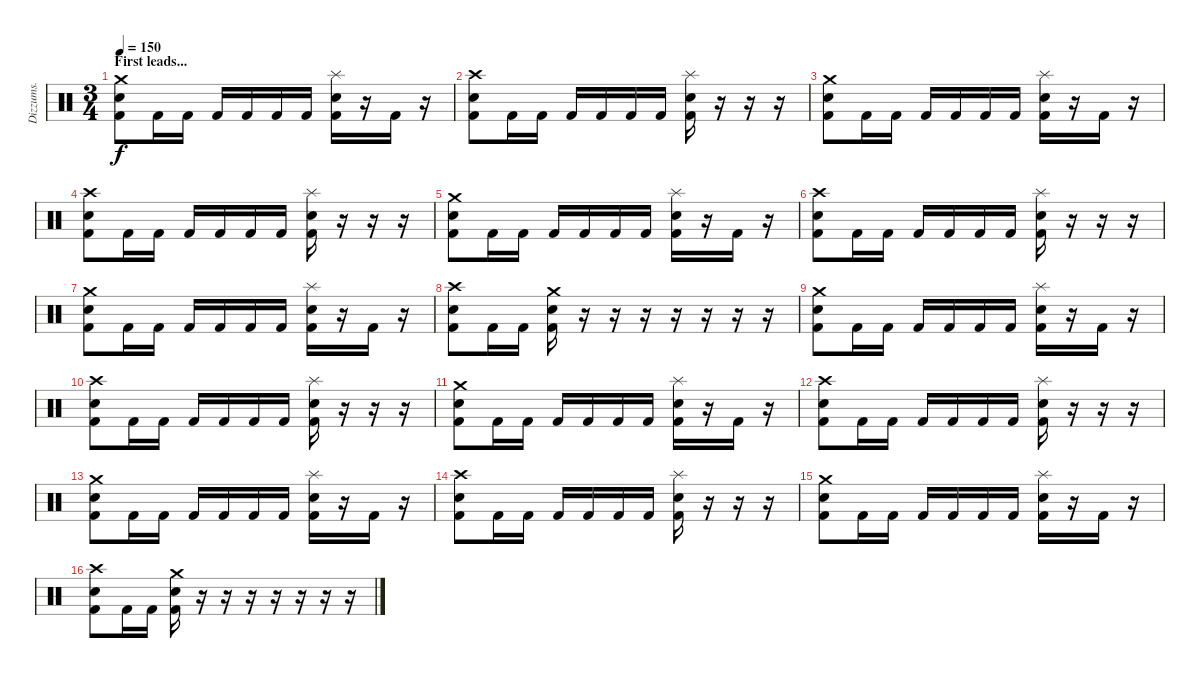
\track ("Dizzums." "Dizzums.") {instrument percussion}
\staff {score}
\articulation defaults
\ts (3 4)
\section ("" "First leads...")
\tempo 150
\clef neutral
\ks c
("Crash medium (hit)" "Electric Snare (hit)" "Kick (hit) 2").8{dy f} "Kick (hit) 2".16 "Kick (hit) 2".16 "Kick (hit) 2".16 "Kick (hit) 2".16 "Kick (hit) 2".16 "Kick (hit) 2".16 ("Splash (hit)" "Electric Snare (hit)" "Kick (hit) 2").16 r.16 "Kick (hit) 2".16 r.16 |
("Crash high (hit)" "Electric Snare (hit)" "Kick (hit) 2").8 "Kick (hit) 2".16 "Kick (hit) 2".16 "Kick (hit) 2".16 "Kick (hit) 2".16 "Kick (hit) 2".16 "Kick (hit) 2".16 ("Splash (hit)" "Electric Snare (hit)" "Kick (hit) 2").16 r.16 r.16 r.16 |
("Crash medium (hit)" "Electric Snare (hit)" "Kick (hit) 2").8 "Kick (hit) 2".16 "Kick (hit) 2".16 "Kick (hit) 2".16 "Kick (hit) 2".16 "Kick (hit) 2".16 "Kick (hit) 2".16 ("Splash (hit)" "Electric Snare (hit)" "Kick (hit) 2").16 r.16 "Kick (hit) 2".16 r.16 |
("Crash high (hit)" "Electric Snare (hit)" "Kick (hit) 2").8 "Kick (hit) 2".16 "Kick (hit) 2".16 "Kick (hit) 2".16 "Kick (hit) 2".16 "Kick (hit) 2".16 "Kick (hit) 2".16 ("Splash (hit)" "Electric Snare (hit)" "Kick (hit) 2").16 r.16 r.16 r.16 |
("Crash medium (hit)" "Electric Snare (hit)" "Kick (hit) 2").8 "Kick (hit) 2".16 "Kick (hit) 2".16 "Kick (hit) 2".16 "Kick (hit) 2".16 "Kick (hit) 2".16 "Kick (hit) 2".16 ("Splash (hit)" "Electric Snare (hit)" "Kick (hit) 2").16 r.16 "Kick (hit) 2".16 r.16 |
("Crash high (hit)" "Electric Snare (hit)" "Kick (hit) 2").8 "Kick (hit) 2".16 "Kick (hit) 2".16 "Kick (hit) 2".16 "Kick (hit) 2".16 "Kick (hit) 2".16 "Kick (hit) 2".16 ("Splash (hit)" "Electric Snare (hit)" "Kick (hit) 2").16 r.16 r.16 r.16 |
("Crash medium (hit)" "Electric Snare (hit)" "Kick (hit) 2").8 "Kick (hit) 2".16 "Kick (hit) 2".16 "Kick (hit) 2".16 "Kick (hit) 2".16 "Kick (hit) 2".16 "Kick (hit) 2".16 ("Splash (hit)" "Electric Snare (hit)" "Kick (hit) 2").16 r.16 "Kick (hit) 2".16 r.16 |
("Crash high (hit)" "Electric Snare (hit)" "Kick (hit) 2").8 "Kick (hit) 2".16 "Kick (hit) 2".16 ("Crash medium (hit)" "Electric Snare (hit)" "Kick (hit) 2").16 r.16 r.16 r.16 r.16 r.16 r.16 r.16 |
("Crash medium (hit)" "Electric Snare (hit)" "Kick (hit) 2").8 "Kick (hit) 2".16 "Kick (hit) 2".16 "Kick (hit) 2".16 "Kick (hit) 2".16 "Kick (hit) 2".16 "Kick (hit) 2".16 ("Splash (hit)" "Electric Snare (hit)" "Kick (hit) 2").16 r.16 "Kick (hit) 2".16 r.16 |
("Crash high (hit)" "Electric Snare (hit)" "Kick (hit) 2").8 "Kick (hit) 2".16 "Kick (hit) 2".16 "Kick (hit) 2".16 "Kick (hit) 2".16 "Kick (hit) 2".16 "Kick (hit) 2".16 ("Splash (hit)" "Electric Snare (hit)" "Kick (hit) 2").16 r.16 r.16 r.16 |
("Crash medium (hit)" "Electric Snare (hit)" "Kick (hit) 2").8 "Kick (hit) 2".16 "Kick (hit) 2".16 "Kick (hit) 2".16 "Kick (hit) 2".16 "Kick (hit) 2".16 "Kick (hit) 2".16 ("Splash (hit)" "Electric Snare (hit)" "Kick (hit) 2").16 r.16 "Kick (hit) 2".16 r.16 |
("Crash high (hit)" "Electric Snare (hit)" "Kick (hit) 2").8 "Kick (hit) 2".16 "Kick (hit) 2".16 "Kick (hit) 2".16 "Kick (hit) 2".16 "Kick (hit) 2".16 "Kick (hit) 2".16 ("Splash (hit)" "Electric Snare (hit)" "Kick (hit) 2").16 r.16 r.16 r.16 |
("Crash medium (hit)" "Electric Snare (hit)" "Kick (hit) 2").8 "Kick (hit) 2".16 "Kick (hit) 2".16 "Kick (hit) 2".16 "Kick (hit) 2".16 "Kick (hit) 2".16 "Kick (hit) 2".16 ("Splash (hit)" "Electric Snare (hit)" "Kick (hit) 2").16 r.16 "Kick (hit) 2".16 r.16 |
("Crash high (hit)" "Electric Snare (hit)" "Kick (hit) 2").8 "Kick (hit) 2".16 "Kick (hit) 2".16 "Kick (hit) 2".16 "Kick (hit) 2".16 "Kick (hit) 2".16 "Kick (hit) 2".16 ("Splash (hit)" "Electric Snare (hit)" "Kick (hit) 2").16 r.16 r.16 r.16 |
("Crash medium (hit)" "Electric Snare (hit)" "Kick (hit) 2").8 "Kick (hit) 2".16 "Kick (hit) 2".16 "Kick (hit) 2".16 "Kick (hit) 2".16 "Kick (hit) 2".16 "Kick (hit) 2".16 ("Splash (hit)" "Electric Snare (hit)" "Kick (hit) 2").16 r.16 "Kick (hit) 2".16 r.16 |
("Crash high (hit)" "Electric Snare (hit)" "Kick (hit) 2").8 "Kick (hit) 2".16 "Kick (hit) 2".16 ("Crash medium (hit)" "Electric Snare (hit)" "Kick (hit) 2").16 r.16 r.16 r.16 r.16 r.16 r.16 r.16
